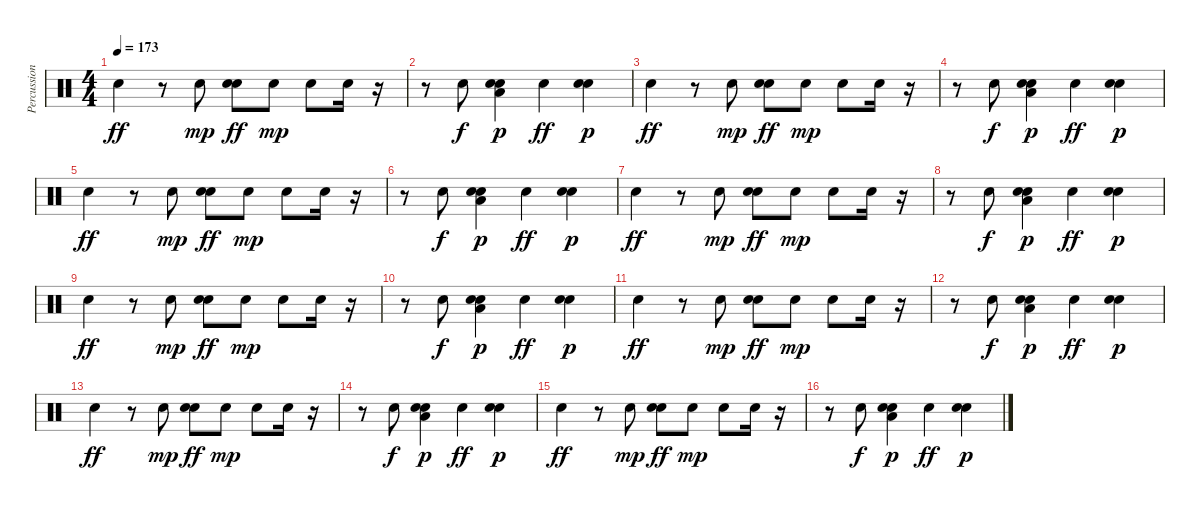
\track ("Percussion" "Percussion") {instrument percussion}
\staff {score}
\articulation defaults
\ts (4 4)
\tempo 173
\clef neutral
\ks c "Hand Clap (hit)".4{dy ff}
r.8 "Hand Clap (hit)".8{dy mp} ("Snare (hit) 2" "Hand Clap (hit)").8{dy ff} "Hand Clap (hit)".8{dy mp} "Hand Clap (hit)".8 "Hand Clap (hit)".16 r.16 |
r.8 "Hand Clap (hit)".8{dy f} ("Hand Clap (hit)" "Snare (hit) 2" "Low Floor Tom (hit)").4{dy p} "Hand Clap (hit)".4{dy ff} ("Snare (hit) 2" "Hand Clap (hit)").4{dy p} |
"Hand Clap (hit)".4{dy ff} r.8 "Hand Clap (hit)".8{dy mp} ("Snare (hit) 2" "Hand Clap (hit)").8{dy ff} "Hand Clap (hit)".8{dy mp} "Hand Clap (hit)".8 "Hand Clap (hit)".16 r.16 |
r.8 "Hand Clap (hit)".8{dy f} ("Hand Clap (hit)" "Snare (hit) 2" "Low Floor Tom (hit)").4{dy p} "Hand Clap (hit)".4{dy ff} ("Snare (hit) 2" "Hand Clap (hit)").4{dy p} |
"Hand Clap (hit)".4{dy ff} r.8 "Hand Clap (hit)".8{dy mp} ("Snare (hit) 2" "Hand Clap (hit)").8{dy ff} "Hand Clap (hit)".8{dy mp} "Hand Clap (hit)".8 "Hand Clap (hit)".16 r.16 |
r.8 "Hand Clap (hit)".8{dy f} ("Hand Clap (hit)" "Snare (hit) 2" "Low Floor Tom (hit)").4{dy p} "Hand Clap (hit)".4{dy ff} ("Snare (hit) 2" "Hand Clap (hit)").4{dy p} |
"Hand Clap (hit)".4{dy ff} r.8 "Hand Clap (hit)".8{dy mp} ("Snare (hit) 2" "Hand Clap (hit)").8{dy ff} "Hand Clap (hit)".8{dy mp} "Hand Clap (hit)".8 "Hand Clap (hit)".16 r.16 |
r.8 "Hand Clap (hit)".8{dy f} ("Hand Clap (hit)" "Snare (hit) 2" "Low Floor Tom (hit)").4{dy p} "Hand Clap (hit)".4{dy ff} ("Snare (hit) 2" "Hand Clap (hit)").4{dy p} |
"Hand Clap (hit)".4{dy ff} r.8 "Hand Clap (hit)".8{dy mp} ("Snare (hit) 2" "Hand Clap (hit)").8{dy ff} "Hand Clap (hit)".8{dy mp} "Hand Clap (hit)".8 "Hand Clap (hit)".16 r.16 |
r.8 "Hand Clap (hit)".8{dy f} ("Hand Clap (hit)" "Snare (hit) 2" "Low Floor Tom (hit)").4{dy p} "Hand Clap (hit)".4{dy ff} ("Snare (hit) 2" "Hand Clap (hit)").4{dy p} |
"Hand Clap (hit)".4{dy ff} r.8 "Hand Clap (hit)".8{dy mp} ("Snare (hit) 2" "Hand Clap (hit)").8{dy ff} "Hand Clap (hit)".8{dy mp} "Hand Clap (hit)".8 "Hand Clap (hit)".16 r.16 |
r.8 "Hand Clap (hit)".8{dy f} ("Hand Clap (hit)" "Snare (hit) 2" "Low Floor Tom (hit)").4{dy p} "Hand Clap (hit)".4{dy ff} ("Snare (hit) 2" "Hand Clap (hit)").4{dy p} |
"Hand Clap (hit)".4{dy ff} r.8 "Hand Clap (hit)".8{dy mp} ("Snare (hit) 2" "Hand Clap (hit)").8{dy ff} "Hand Clap (hit)".8{dy mp} "Hand Clap (hit)".8 "Hand Clap (hit)".16 r.16 |
r.8 "Hand Clap (hit)".8{dy f} ("Hand Clap (hit)" "Snare (hit) 2" "Low Floor Tom (hit)").4{dy p} "Hand Clap (hit)".4{dy ff} ("Snare (hit) 2" "Hand Clap (hit)").4{dy p} |
"Hand Clap (hit)".4{dy ff} r.8 "Hand Clap (hit)".8{dy mp} ("Snare (hit) 2" "Hand Clap (hit)").8{dy ff} "Hand Clap (hit)".8{dy mp} "Hand Clap (hit)".8 "Hand Clap (hit)".16 r.16 |
r.8{volume 5} "Hand Clap (hit)".8{dy f} ("Hand Clap (hit)" "Snare (hit) 2" "Low Floor Tom (hit)").4{dy p} "Hand Clap (hit)".4{dy ff} ("Snare (hit) 2" "Hand Clap (hit)").4{dy p}
